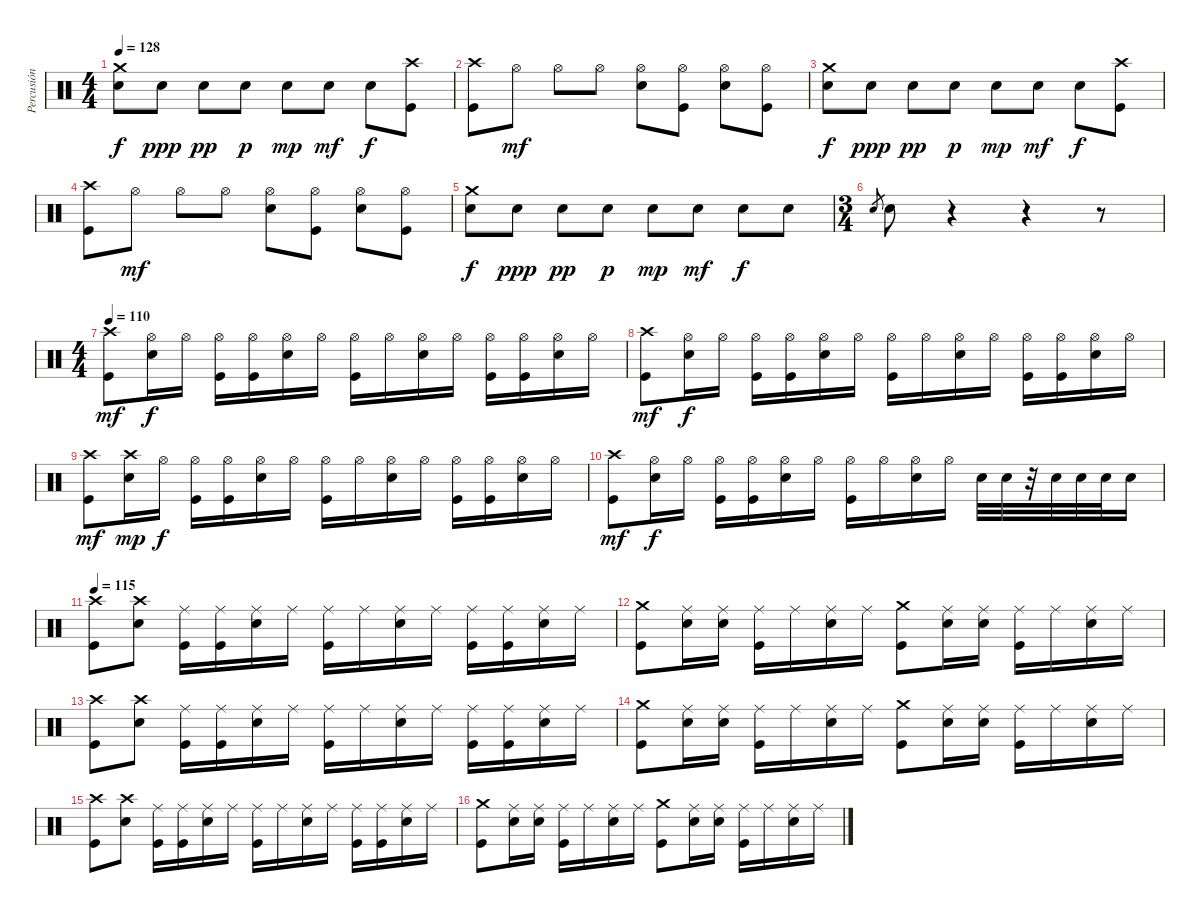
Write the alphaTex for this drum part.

\track ("Percusión" "Percusión") {instrument percussion}
\staff {score}
\articulation defaults
\ts (4 4)
\tempo 128
\clef neutral
\ks c
("Snare (hit) 2" "Crash medium (hit)").8{dy f} "Snare (hit) 2".8{dy ppp} "Snare (hit) 2".8{dy pp} "Snare (hit) 2".8{dy p} "Snare (hit) 2".8{dy mp} "Snare (hit) 2".8{dy mf} "Snare (hit) 2".8{dy f} ("Kick (hit)" "Crash high (hit)").8 |
("Kick (hit)" "Crash high (hit)").8 "Hi-Hat (open)".8{dy mf} "Hi-Hat (open)".8 "Hi-Hat (open)".8 ("Snare (hit) 2" "Hi-Hat (open)").8 ("Kick (hit)" "Hi-Hat (open)").8 ("Snare (hit) 2" "Hi-Hat (open)").8 ("Kick (hit)" "Hi-Hat (open)").8 |
("Snare (hit) 2" "Crash medium (hit)").8{dy f} "Snare (hit) 2".8{dy ppp} "Snare (hit) 2".8{dy pp} "Snare (hit) 2".8{dy p} "Snare (hit) 2".8{dy mp} "Snare (hit) 2".8{dy mf} "Snare (hit) 2".8{dy f} ("Kick (hit)" "Crash high (hit)").8 |
("Kick (hit)" "Crash high (hit)").8 "Hi-Hat (open)".8{dy mf} "Hi-Hat (open)".8 "Hi-Hat (open)".8 ("Snare (hit) 2" "Hi-Hat (open)").8 ("Kick (hit)" "Hi-Hat (open)").8 ("Snare (hit) 2" "Hi-Hat (open)").8 ("Kick (hit)" "Hi-Hat (open)").8 |
("Snare (hit) 2" "Crash medium (hit)").8{dy f} "Snare (hit) 2".8{dy ppp} "Snare (hit) 2".8{dy pp} "Snare (hit) 2".8{dy p} "Snare (hit) 2".8{dy mp} "Snare (hit) 2".8{dy mf} "Snare (hit) 2".8{dy f} "Snare (hit) 2".8 |
\ts (3 4)
"Snare (hit) 2".8{gr} "Snare (hit) 2".8 r.4 r.4 r.8 |
\ts (4 4)
\tempo 110
("Kick (hit)" "Crash high (hit)").8{dy mf} ("Snare (hit) 2" "Hi-Hat (open)").16{dy f} "Hi-Hat (open)".16 ("Kick (hit)" "Hi-Hat (open)").16 ("Kick (hit)" "Hi-Hat (open)").16 ("Snare (hit) 2" "Hi-Hat (open)").16 "Hi-Hat (open)".16 ("Kick (hit)" "Hi-Hat (open)").16 "Hi-Hat (open)".16 ("Snare (hit) 2" "Hi-Hat (open)").16 "Hi-Hat (open)".16 ("Kick (hit)" "Hi-Hat (open)").16 ("Kick (hit)" "Hi-Hat (open)").16 ("Snare (hit) 2" "Hi-Hat (open)").16 "Hi-Hat (open)".16 |
("Kick (hit)" "Crash high (hit)").8{dy mf} ("Snare (hit) 2" "Hi-Hat (open)").16{dy f} "Hi-Hat (open)".16 ("Kick (hit)" "Hi-Hat (open)").16 ("Kick (hit)" "Hi-Hat (open)").16 ("Snare (hit) 2" "Hi-Hat (open)").16 "Hi-Hat (open)".16 ("Kick (hit)" "Hi-Hat (open)").16 "Hi-Hat (open)".16 ("Snare (hit) 2" "Hi-Hat (open)").16 "Hi-Hat (open)".16 ("Kick (hit)" "Hi-Hat (open)").16 ("Kick (hit)" "Hi-Hat (open)").16 ("Snare (hit) 2" "Hi-Hat (open)").16 "Hi-Hat (open)".16 |
("Kick (hit)" "Crash high (hit)").8{dy mf} ("Snare (hit) 2" "Crash high (hit)").16{dy mp} "Hi-Hat (open)".16{dy f} ("Kick (hit)" "Hi-Hat (open)").16 ("Kick (hit)" "Hi-Hat (open)").16 ("Snare (hit) 2" "Hi-Hat (open)").16 "Hi-Hat (open)".16 ("Kick (hit)" "Hi-Hat (open)").16 "Hi-Hat (open)".16 ("Snare (hit) 2" "Hi-Hat (open)").16 "Hi-Hat (open)".16 ("Kick (hit)" "Hi-Hat (open)").16 ("Kick (hit)" "Hi-Hat (open)").16 ("Snare (hit) 2" "Hi-Hat (open)").16 "Hi-Hat (open)".16 |
("Kick (hit)" "Crash high (hit)").8{dy mf} ("Snare (hit) 2" "Hi-Hat (open)").16{dy f} "Hi-Hat (open)".16 ("Kick (hit)" "Hi-Hat (open)").16 ("Kick (hit)" "Hi-Hat (open)").16 ("Snare (hit) 2" "Hi-Hat (open)").16 "Hi-Hat (open)".16 ("Kick (hit)" "Hi-Hat (open)").16 "Hi-Hat (open)".16 ("Snare (hit) 2" "Hi-Hat (open)").16 "Hi-Hat (open)".16 "Snare (hit) 2".32 "Snare (hit) 2".32 r.32 "Snare (hit) 2".32 "Snare (hit) 2".32 "Snare (hit) 2".32 "Snare (hit) 2".16 |
\tempo 115
("Kick (hit)" "Crash high (hit)").8 ("Snare (hit) 2" "Crash high (hit)").8 ("Kick (hit)" "Ride (middle)").16 ("Kick (hit)" "Ride (middle)").16 ("Snare (hit) 2" "Ride (middle)").16 "Ride (middle)".16 ("Kick (hit)" "Ride (middle)").16 "Ride (middle)".16 ("Snare (hit) 2" "Ride (middle)").16 "Ride (middle)".16 ("Kick (hit)" "Ride (middle)").16 ("Kick (hit)" "Ride (middle)").16 ("Snare (hit) 2" "Ride (middle)").16 "Ride (middle)".16 |
("Kick (hit)" "Crash medium (hit)").8 ("Snare (hit) 2" "Ride (middle)").16 ("Snare (hit) 2" "Ride (middle)").16 ("Kick (hit)" "Ride (middle)").16 "Ride (middle)".16 ("Snare (hit) 2" "Ride (middle)").16 "Ride (middle)".16 ("Kick (hit)" "Crash medium (hit)").8 ("Snare (hit) 2" "Ride (middle)").16 ("Snare (hit) 2" "Ride (middle)").16 ("Kick (hit)" "Ride (middle)").16 "Ride (middle)".16 ("Snare (hit) 2" "Ride (middle)").16 "Ride (middle)".16 |
("Kick (hit)" "Crash high (hit)").8 ("Snare (hit) 2" "Crash high (hit)").8 ("Kick (hit)" "Ride (middle)").16 ("Kick (hit)" "Ride (middle)").16 ("Snare (hit) 2" "Ride (middle)").16 "Ride (middle)".16 ("Kick (hit)" "Ride (middle)").16 "Ride (middle)".16 ("Snare (hit) 2" "Ride (middle)").16 "Ride (middle)".16 ("Kick (hit)" "Ride (middle)").16 ("Kick (hit)" "Ride (middle)").16 ("Snare (hit) 2" "Ride (middle)").16 "Ride (middle)".16 |
("Kick (hit)" "Crash medium (hit)").8 ("Snare (hit) 2" "Ride (middle)").16 ("Snare (hit) 2" "Ride (middle)").16 ("Kick (hit)" "Ride (middle)").16 "Ride (middle)".16 ("Snare (hit) 2" "Ride (middle)").16 "Ride (middle)".16 ("Kick (hit)" "Crash medium (hit)").8 ("Snare (hit) 2" "Ride (middle)").16 ("Snare (hit) 2" "Ride (middle)").16 ("Kick (hit)" "Ride (middle)").16 "Ride (middle)".16 ("Snare (hit) 2" "Ride (middle)").16 "Ride (middle)".16 |
("Kick (hit)" "Crash high (hit)").8 ("Snare (hit) 2" "Crash high (hit)").8 ("Kick (hit)" "Ride (middle)").16 ("Kick (hit)" "Ride (middle)").16 ("Snare (hit) 2" "Ride (middle)").16 "Ride (middle)".16 ("Kick (hit)" "Ride (middle)").16 "Ride (middle)".16 ("Snare (hit) 2" "Ride (middle)").16 "Ride (middle)".16 ("Kick (hit)" "Ride (middle)").16 ("Kick (hit)" "Ride (middle)").16 ("Snare (hit) 2" "Ride (middle)").16 "Ride (middle)".16 |
("Kick (hit)" "Crash medium (hit)").8 ("Snare (hit) 2" "Ride (middle)").16 ("Snare (hit) 2" "Ride (middle)").16 ("Kick (hit)" "Ride (middle)").16 "Ride (middle)".16 ("Snare (hit) 2" "Ride (middle)").16 "Ride (middle)".16 ("Kick (hit)" "Crash medium (hit)").8 ("Snare (hit) 2" "Ride (middle)").16 ("Snare (hit) 2" "Ride (middle)").16 ("Kick (hit)" "Ride (middle)").16 "Ride (middle)".16 ("Snare (hit) 2" "Ride (middle)").16 "Ride (middle)".16
